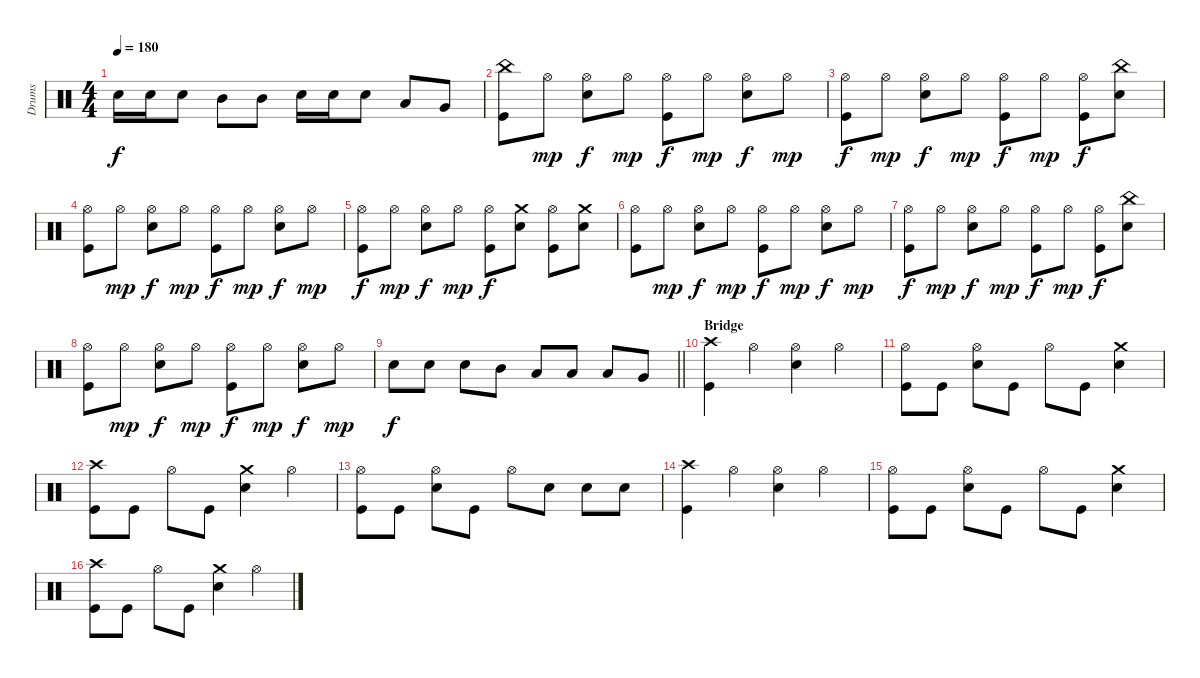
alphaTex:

\track ("Drums" "Drums") {instrument percussion}
\staff {score}
\articulation defaults
\ts (4 4)
\tempo 180
\clef neutral
\ks c "Electric Snare (hit)".16{dy f} "Electric Snare (hit)".16 "Electric Snare (hit)".8 "Mid Tom (hit)".8 "Mid Tom (hit)".8 "Electric Snare (hit)".16 "Electric Snare (hit)".16 "Electric Snare (hit)".8 "Low Tom (hit)".8 "Very Low Tom (hit)".8
|
("China (hit)" "Kick (hit)").8 "Hi-Hat (open)".8{dy mp} ("Hi-Hat (open)" "Electric Snare (hit)").8{dy f} "Hi-Hat (open)".8{dy mp} ("Hi-Hat (open)" "Kick (hit)").8{dy f} "Hi-Hat (open)".8{dy mp} ("Hi-Hat (open)" "Electric Snare (hit)").8{dy f} "Hi-Hat (open)".8{dy mp} |
("Hi-Hat (open)" "Kick (hit)").8{dy f} "Hi-Hat (open)".8{dy mp} ("Hi-Hat (open)" "Electric Snare (hit)").8{dy f} "Hi-Hat (open)".8{dy mp} ("Hi-Hat (open)" "Kick (hit)").8{dy f} "Hi-Hat (open)".8{dy mp} ("Hi-Hat (open)" "Kick (hit)").8{dy f} ("China (hit)" "Electric Snare (hit)").8 |
("Hi-Hat (open)" "Kick (hit)").8 "Hi-Hat (open)".8{dy mp} ("Hi-Hat (open)" "Electric Snare (hit)").8{dy f} "Hi-Hat (open)".8{dy mp} ("Hi-Hat (open)" "Kick (hit)").8{dy f} "Hi-Hat (open)".8{dy mp} ("Hi-Hat (open)" "Electric Snare (hit)").8{dy f} "Hi-Hat (open)".8{dy mp} |
("Hi-Hat (open)" "Kick (hit)").8{dy f} "Hi-Hat (open)".8{dy mp} ("Hi-Hat (open)" "Electric Snare (hit)").8{dy f} "Hi-Hat (open)".8{dy mp} ("Hi-Hat (open)" "Kick (hit)").8{dy f} ("Crash medium (hit)" "Electric Snare (hit)").8 ("Hi-Hat (open)" "Kick (hit)").8 ("Crash medium (hit)" "Electric Snare (hit)").8 |
("Hi-Hat (open)" "Kick (hit)").8 "Hi-Hat (open)".8{dy mp} ("Hi-Hat (open)" "Electric Snare (hit)").8{dy f} "Hi-Hat (open)".8{dy mp} ("Hi-Hat (open)" "Kick (hit)").8{dy f} "Hi-Hat (open)".8{dy mp} ("Hi-Hat (open)" "Electric Snare (hit)").8{dy f} "Hi-Hat (open)".8{dy mp} |
("Hi-Hat (open)" "Kick (hit)").8{dy f} "Hi-Hat (open)".8{dy mp} ("Hi-Hat (open)" "Electric Snare (hit)").8{dy f} "Hi-Hat (open)".8{dy mp} ("Hi-Hat (open)" "Kick (hit)").8{dy f} "Hi-Hat (open)".8{dy mp} ("Hi-Hat (open)" "Kick (hit)").8{dy f} ("China (hit)" "Electric Snare (hit)").8 |
("Hi-Hat (open)" "Kick (hit)").8 "Hi-Hat (open)".8{dy mp} ("Hi-Hat (open)" "Electric Snare (hit)").8{dy f} "Hi-Hat (open)".8{dy mp} ("Hi-Hat (open)" "Kick (hit)").8{dy f} "Hi-Hat (open)".8{dy mp} ("Hi-Hat (open)" "Electric Snare (hit)").8{dy f} "Hi-Hat (open)".8{dy mp} |
\barLineRight lightlight "Electric Snare (hit)".8{dy f} "Electric Snare (hit)".8 "Electric Snare (hit)".8 "Mid Tom (hit)".8 "Low Tom (hit)".8 "Low Tom (hit)".8 "Low Tom (hit)".8 "Very Low Tom (hit)".8
|
\section ("" "Bridge")
("Crash high (hit)" "Kick (hit)").4 "Hi-Hat (open)".4 ("Hi-Hat (open)" "Electric Snare (hit)").4 "Hi-Hat (open)".4 |
("Hi-Hat (open)" "Kick (hit)").8 "Kick (hit)".8 ("Hi-Hat (open)" "Electric Snare (hit)").8 "Kick (hit)".8 "Hi-Hat (open)".8 "Kick (hit)".8 ("Crash medium (hit)" "Electric Snare (hit)").4 |
("Crash high (hit)" "Kick (hit)").8 "Kick (hit)".8 "Hi-Hat (open)".8 "Kick (hit)".8 ("Crash medium (hit)" "Electric Snare (hit)").4 "Hi-Hat (open)".4 |
("Hi-Hat (open)" "Kick (hit)").8 "Kick (hit)".8 ("Hi-Hat (open)" "Electric Snare (hit)").8 "Kick (hit)".8 "Hi-Hat (open)".8 "Electric Snare (hit)".8 "Electric Snare (hit)".8 "Electric Snare (hit)".8 |
("Crash high (hit)" "Kick (hit)").4 "Hi-Hat (open)".4 ("Hi-Hat (open)" "Electric Snare (hit)").4 "Hi-Hat (open)".4 |
("Hi-Hat (open)" "Kick (hit)").8 "Kick (hit)".8 ("Hi-Hat (open)" "Electric Snare (hit)").8 "Kick (hit)".8 "Hi-Hat (open)".8 "Kick (hit)".8 ("Crash medium (hit)" "Electric Snare (hit)").4 |
("Crash high (hit)" "Kick (hit)").8 "Kick (hit)".8 "Hi-Hat (open)".8 "Kick (hit)".8 ("Crash medium (hit)" "Electric Snare (hit)").4 "Hi-Hat (open)".4
